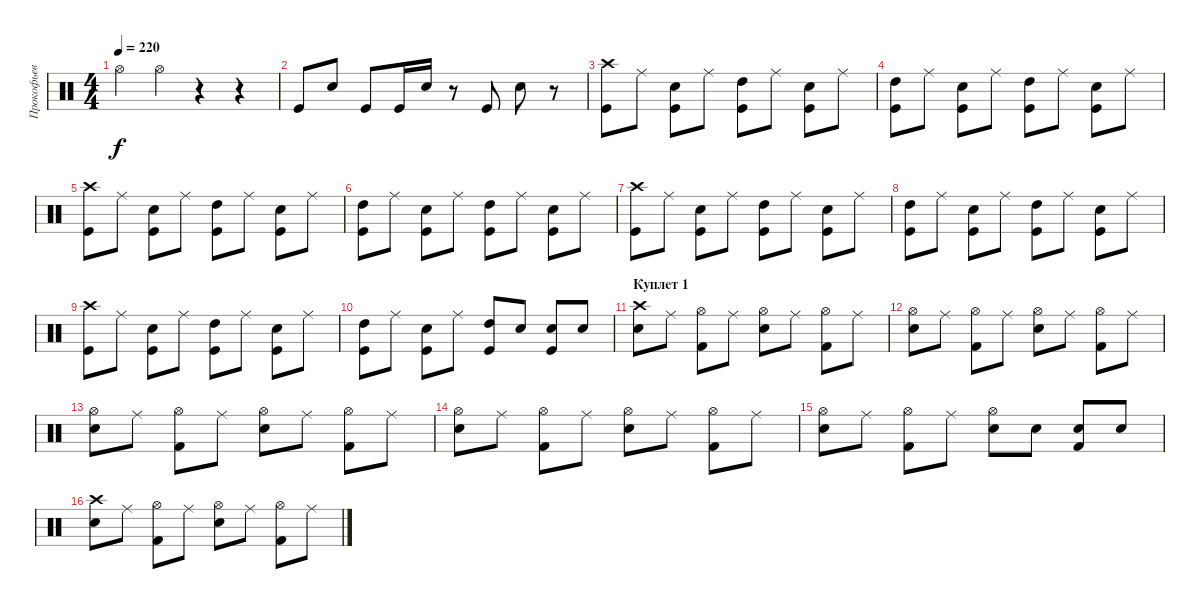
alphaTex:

\track ("Прокофьев" "Прокофьев") {instrument percussion}
\staff {score}
\articulation defaults
\ts (4 4)
\tempo 220
\clef neutral
\ks c "Hi-Hat (open)".4{dy f} "Hi-Hat (open)".4
r.4 r.4 |
"Kick (hit)".8 "Snare (hit) 2".8 "Kick (hit)".8 "Kick (hit)".16 "Snare (hit) 2".16 r.8 "Kick (hit)".8 "Snare (hit) 2".8 r.8 |
("Crash high (hit)" "Kick (hit)").8 "Ride (middle)".8 ("Snare (hit) 2" "Kick (hit)").8 "Ride (middle)".8 ("High Tom (hit)" "Kick (hit)").8 "Ride (middle)".8 ("Snare (hit) 2" "Kick (hit)").8 "Ride (middle)".8 |
("High Tom (hit)" "Kick (hit)").8 "Ride (middle)".8 ("Snare (hit) 2" "Kick (hit)").8 "Ride (middle)".8 ("High Tom (hit)" "Kick (hit)").8 "Ride (middle)".8 ("Snare (hit) 2" "Kick (hit)").8 "Ride (middle)".8 |
("Crash high (hit)" "Kick (hit)").8 "Ride (middle)".8 ("Snare (hit) 2" "Kick (hit)").8 "Ride (middle)".8 ("High Tom (hit)" "Kick (hit)").8 "Ride (middle)".8 ("Snare (hit) 2" "Kick (hit)").8 "Ride (middle)".8 |
("High Tom (hit)" "Kick (hit)").8 "Ride (middle)".8 ("Snare (hit) 2" "Kick (hit)").8 "Ride (middle)".8 ("High Tom (hit)" "Kick (hit)").8 "Ride (middle)".8 ("Snare (hit) 2" "Kick (hit)").8 "Ride (middle)".8 |
("Crash high (hit)" "Kick (hit)").8 "Ride (middle)".8 ("Snare (hit) 2" "Kick (hit)").8 "Ride (middle)".8 ("High Tom (hit)" "Kick (hit)").8 "Ride (middle)".8 ("Snare (hit) 2" "Kick (hit)").8 "Ride (middle)".8 |
("High Tom (hit)" "Kick (hit)").8 "Ride (middle)".8 ("Snare (hit) 2" "Kick (hit)").8 "Ride (middle)".8 ("High Tom (hit)" "Kick (hit)").8 "Ride (middle)".8 ("Snare (hit) 2" "Kick (hit)").8 "Ride (middle)".8 |
("Crash high (hit)" "Kick (hit)").8 "Ride (middle)".8 ("Snare (hit) 2" "Kick (hit)").8 "Ride (middle)".8 ("High Tom (hit)" "Kick (hit)").8 "Ride (middle)".8 ("Snare (hit) 2" "Kick (hit)").8 "Ride (middle)".8 |
("High Tom (hit)" "Kick (hit)").8 "Ride (middle)".8 ("Snare (hit) 2" "Kick (hit)").8 "Ride (middle)".8 ("High Tom (hit)" "Kick (hit)").8 "Snare (hit) 2".8 ("Snare (hit) 2" "Kick (hit)").8 "Snare (hit) 2".8 |
\section ("" "Куплет 1")
("Crash high (hit)" "Snare (hit) 2").8 "Ride (middle)".8 ("Hi-Hat (open)" "Kick (hit) 2").8 "Ride (middle)".8 ("Hi-Hat (open)" "Snare (hit) 2").8 "Ride (middle)".8 ("Hi-Hat (open)" "Kick (hit) 2").8 "Ride (middle)".8 |
("Hi-Hat (open)" "Snare (hit) 2").8 "Ride (middle)".8 ("Hi-Hat (open)" "Kick (hit) 2").8 "Ride (middle)".8 ("Hi-Hat (open)" "Snare (hit) 2").8 "Ride (middle)".8 ("Hi-Hat (open)" "Kick (hit) 2").8 "Ride (middle)".8 |
("Hi-Hat (open)" "Snare (hit) 2").8 "Ride (middle)".8 ("Hi-Hat (open)" "Kick (hit) 2").8 "Ride (middle)".8 ("Hi-Hat (open)" "Snare (hit) 2").8 "Ride (middle)".8 ("Hi-Hat (open)" "Kick (hit) 2").8 "Ride (middle)".8 |
("Hi-Hat (open)" "Snare (hit) 2").8 "Ride (middle)".8 ("Hi-Hat (open)" "Kick (hit) 2").8 "Ride (middle)".8 ("Hi-Hat (open)" "Snare (hit) 2").8 "Ride (middle)".8 ("Hi-Hat (open)" "Kick (hit) 2").8 "Ride (middle)".8 |
("Hi-Hat (open)" "Snare (hit) 2").8 "Ride (middle)".8 ("Hi-Hat (open)" "Kick (hit) 2").8 "Ride (middle)".8 ("Hi-Hat (open)" "Snare (hit) 2").8 "Snare (hit) 2".8 ("Snare (hit) 2" "Kick (hit) 2").8 "Snare (hit) 2".8 |
("Crash high (hit)" "Snare (hit) 2").8 "Ride (middle)".8 ("Hi-Hat (open)" "Kick (hit) 2").8 "Ride (middle)".8 ("Hi-Hat (open)" "Snare (hit) 2").8 "Ride (middle)".8 ("Hi-Hat (open)" "Kick (hit) 2").8 "Ride (middle)".8
